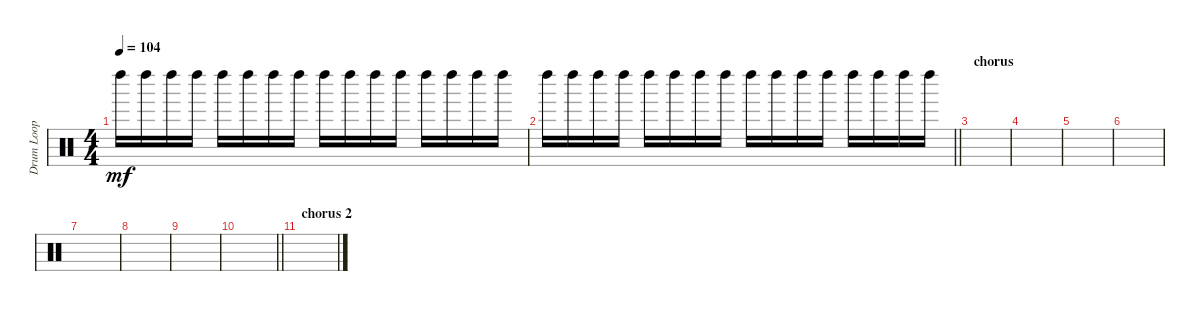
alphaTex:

\track ("Drum Loop" "Drum Loop") {instrument percussion}
\staff {score}
\articulation defaults
\ts (4 4)
\tempo 104
\clef neutral
\ks c "Left Maraca (hit)".16{dy mf} "Left Maraca (hit)".16 "Left Maraca (hit)".16 "Left Maraca (hit)".16 "Left Maraca (hit)".16 "Left Maraca (hit)".16 "Left Maraca (hit)".16 "Left Maraca (hit)".16 "Left Maraca (hit)".16 "Left Maraca (hit)".16 "Left Maraca (hit)".16 "Left Maraca (hit)".16 "Left Maraca (hit)".16 "Left Maraca (hit)".16 "Left Maraca (hit)".16 "Left Maraca (hit)".16
|
\barLineRight lightlight "Left Maraca (hit)".16 "Left Maraca (hit)".16 "Left Maraca (hit)".16 "Left Maraca (hit)".16 "Left Maraca (hit)".16 "Left Maraca (hit)".16 "Left Maraca (hit)".16 "Left Maraca (hit)".16 "Left Maraca (hit)".16 "Left Maraca (hit)".16 "Left Maraca (hit)".16 "Left Maraca (hit)".16 "Left Maraca (hit)".16 "Left Maraca (hit)".16 "Left Maraca (hit)".16 "Left Maraca (hit)".16
|
\section ("" "chorus")
|
|
|
|
|
|
|
\barLineRight lightlight
|
\section ("" "chorus 2")
